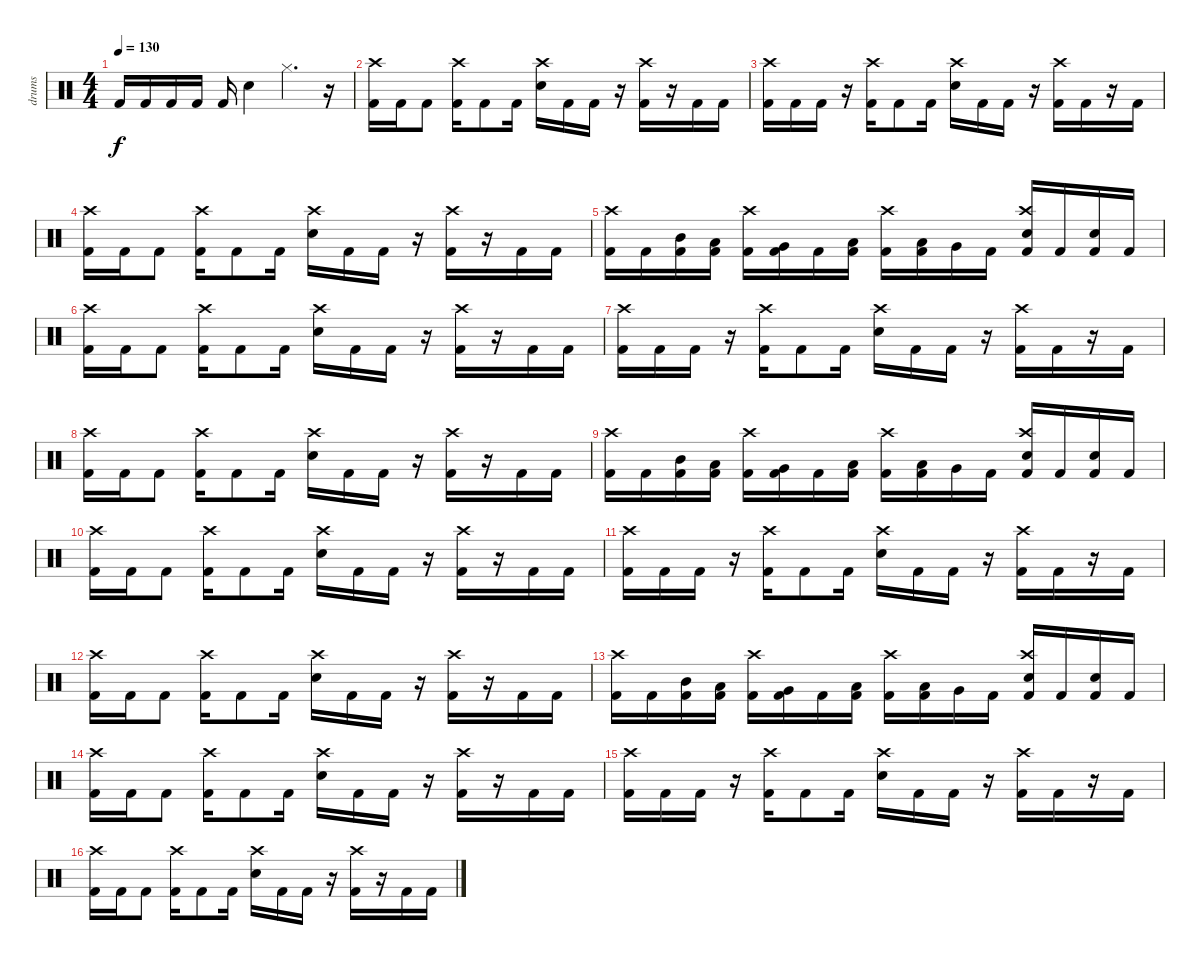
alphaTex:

\track ("drums" "drums") {instrument percussion}
\staff {score}
\articulation defaults
\ts (4 4)
\tempo 130
\clef neutral
\ks c "Kick (hit) 2".16{dy f} "Kick (hit) 2".16 "Kick (hit) 2".16 "Kick (hit) 2".16 "Kick (hit) 2".16 "Electric Snare (hit)".4 "Hi-Hat (closed)".4{d}
r.16 |
("Crash high (hit)" "Kick (hit) 2").16 "Kick (hit) 2".16 "Kick (hit) 2".8 ("Crash high (hit)" "Kick (hit) 2").16 "Kick (hit) 2".8 "Kick (hit) 2".16 ("Crash high (hit)" "Snare (hit) 2").16 "Kick (hit) 2".16 "Kick (hit) 2".16 r.16 ("Crash high (hit)" "Kick (hit) 2").16 r.16 "Kick (hit) 2".16 "Kick (hit) 2".16 |
("Crash high (hit)" "Kick (hit) 2").16 "Kick (hit) 2".16 "Kick (hit) 2".16 r.16 ("Crash high (hit)" "Kick (hit) 2").16 "Kick (hit) 2".8 "Kick (hit) 2".16 ("Crash high (hit)" "Snare (hit) 2").16 "Kick (hit) 2".16 "Kick (hit) 2".16 r.16 ("Crash high (hit)" "Kick (hit) 2").16 "Kick (hit) 2".16 r.16 "Kick (hit) 2".16 |
("Crash high (hit)" "Kick (hit) 2").16 "Kick (hit) 2".16 "Kick (hit) 2".8 ("Crash high (hit)" "Kick (hit) 2").16 "Kick (hit) 2".8 "Kick (hit) 2".16 ("Crash high (hit)" "Snare (hit) 2").16 "Kick (hit) 2".16 "Kick (hit) 2".16 r.16 ("Crash high (hit)" "Kick (hit) 2").16 r.16 "Kick (hit) 2".16 "Kick (hit) 2".16 |
("Crash high (hit)" "Kick (hit) 2").16 "Kick (hit) 2".16 ("Mid Tom (hit)" "Kick (hit) 2").16 ("Low Tom (hit)" "Kick (hit) 2").16 ("Crash high (hit)" "Kick (hit) 2").16 ("Very Low Tom (hit)" "Kick (hit) 2").16 "Kick (hit) 2".16 ("Low Tom (hit)" "Kick (hit) 2").16 ("Crash high (hit)" "Kick (hit) 2").16 ("Low Tom (hit)" "Kick (hit) 2").16 "Very Low Tom (hit)".16 "Kick (hit) 2".16 ("Crash high (hit)" "Snare (hit) 2" "Kick (hit) 2").16 "Kick (hit) 2".16 ("Snare (hit) 2" "Kick (hit) 2").16 "Kick (hit) 2".16 |
("Crash high (hit)" "Kick (hit) 2").16 "Kick (hit) 2".16 "Kick (hit) 2".8 ("Crash high (hit)" "Kick (hit) 2").16 "Kick (hit) 2".8 "Kick (hit) 2".16 ("Crash high (hit)" "Snare (hit) 2").16 "Kick (hit) 2".16 "Kick (hit) 2".16 r.16 ("Crash high (hit)" "Kick (hit) 2").16 r.16 "Kick (hit) 2".16 "Kick (hit) 2".16 |
("Crash high (hit)" "Kick (hit) 2").16 "Kick (hit) 2".16 "Kick (hit) 2".16 r.16 ("Crash high (hit)" "Kick (hit) 2").16 "Kick (hit) 2".8 "Kick (hit) 2".16 ("Crash high (hit)" "Snare (hit) 2").16 "Kick (hit) 2".16 "Kick (hit) 2".16 r.16 ("Crash high (hit)" "Kick (hit) 2").16 "Kick (hit) 2".16 r.16 "Kick (hit) 2".16 |
("Crash high (hit)" "Kick (hit) 2").16 "Kick (hit) 2".16 "Kick (hit) 2".8 ("Crash high (hit)" "Kick (hit) 2").16 "Kick (hit) 2".8 "Kick (hit) 2".16 ("Crash high (hit)" "Snare (hit) 2").16 "Kick (hit) 2".16 "Kick (hit) 2".16 r.16 ("Crash high (hit)" "Kick (hit) 2").16 r.16 "Kick (hit) 2".16 "Kick (hit) 2".16 |
("Crash high (hit)" "Kick (hit) 2").16 "Kick (hit) 2".16 ("Mid Tom (hit)" "Kick (hit) 2").16 ("Low Tom (hit)" "Kick (hit) 2").16 ("Crash high (hit)" "Kick (hit) 2").16 ("Very Low Tom (hit)" "Kick (hit) 2").16 "Kick (hit) 2".16 ("Low Tom (hit)" "Kick (hit) 2").16 ("Crash high (hit)" "Kick (hit) 2").16 ("Low Tom (hit)" "Kick (hit) 2").16 "Very Low Tom (hit)".16 "Kick (hit) 2".16 ("Crash high (hit)" "Snare (hit) 2" "Kick (hit) 2").16 "Kick (hit) 2".16 ("Snare (hit) 2" "Kick (hit) 2").16 "Kick (hit) 2".16 |
("Crash high (hit)" "Kick (hit) 2").16 "Kick (hit) 2".16 "Kick (hit) 2".8 ("Crash high (hit)" "Kick (hit) 2").16 "Kick (hit) 2".8 "Kick (hit) 2".16 ("Crash high (hit)" "Snare (hit) 2").16 "Kick (hit) 2".16 "Kick (hit) 2".16 r.16 ("Crash high (hit)" "Kick (hit) 2").16 r.16 "Kick (hit) 2".16 "Kick (hit) 2".16 |
("Crash high (hit)" "Kick (hit) 2").16 "Kick (hit) 2".16 "Kick (hit) 2".16 r.16 ("Crash high (hit)" "Kick (hit) 2").16 "Kick (hit) 2".8 "Kick (hit) 2".16 ("Crash high (hit)" "Snare (hit) 2").16 "Kick (hit) 2".16 "Kick (hit) 2".16 r.16 ("Crash high (hit)" "Kick (hit) 2").16 "Kick (hit) 2".16 r.16 "Kick (hit) 2".16 |
("Crash high (hit)" "Kick (hit) 2").16 "Kick (hit) 2".16 "Kick (hit) 2".8 ("Crash high (hit)" "Kick (hit) 2").16 "Kick (hit) 2".8 "Kick (hit) 2".16 ("Crash high (hit)" "Snare (hit) 2").16 "Kick (hit) 2".16 "Kick (hit) 2".16 r.16 ("Crash high (hit)" "Kick (hit) 2").16 r.16 "Kick (hit) 2".16 "Kick (hit) 2".16 |
("Crash high (hit)" "Kick (hit) 2").16 "Kick (hit) 2".16 ("Mid Tom (hit)" "Kick (hit) 2").16 ("Low Tom (hit)" "Kick (hit) 2").16 ("Crash high (hit)" "Kick (hit) 2").16 ("Very Low Tom (hit)" "Kick (hit) 2").16 "Kick (hit) 2".16 ("Low Tom (hit)" "Kick (hit) 2").16 ("Crash high (hit)" "Kick (hit) 2").16 ("Low Tom (hit)" "Kick (hit) 2").16 "Very Low Tom (hit)".16 "Kick (hit) 2".16 ("Crash high (hit)" "Snare (hit) 2" "Kick (hit) 2").16 "Kick (hit) 2".16 ("Snare (hit) 2" "Kick (hit) 2").16 "Kick (hit) 2".16 |
("Crash high (hit)" "Kick (hit) 2").16 "Kick (hit) 2".16 "Kick (hit) 2".8 ("Crash high (hit)" "Kick (hit) 2").16 "Kick (hit) 2".8 "Kick (hit) 2".16 ("Crash high (hit)" "Snare (hit) 2").16 "Kick (hit) 2".16 "Kick (hit) 2".16 r.16 ("Crash high (hit)" "Kick (hit) 2").16 r.16 "Kick (hit) 2".16 "Kick (hit) 2".16 |
("Crash high (hit)" "Kick (hit) 2").16 "Kick (hit) 2".16 "Kick (hit) 2".16 r.16 ("Crash high (hit)" "Kick (hit) 2").16 "Kick (hit) 2".8 "Kick (hit) 2".16 ("Crash high (hit)" "Snare (hit) 2").16 "Kick (hit) 2".16 "Kick (hit) 2".16 r.16 ("Crash high (hit)" "Kick (hit) 2").16 "Kick (hit) 2".16 r.16 "Kick (hit) 2".16 |
("Crash high (hit)" "Kick (hit) 2").16 "Kick (hit) 2".16 "Kick (hit) 2".8 ("Crash high (hit)" "Kick (hit) 2").16 "Kick (hit) 2".8 "Kick (hit) 2".16 ("Crash high (hit)" "Snare (hit) 2").16 "Kick (hit) 2".16 "Kick (hit) 2".16 r.16 ("Crash high (hit)" "Kick (hit) 2").16 r.16 "Kick (hit) 2".16 "Kick (hit) 2".16
